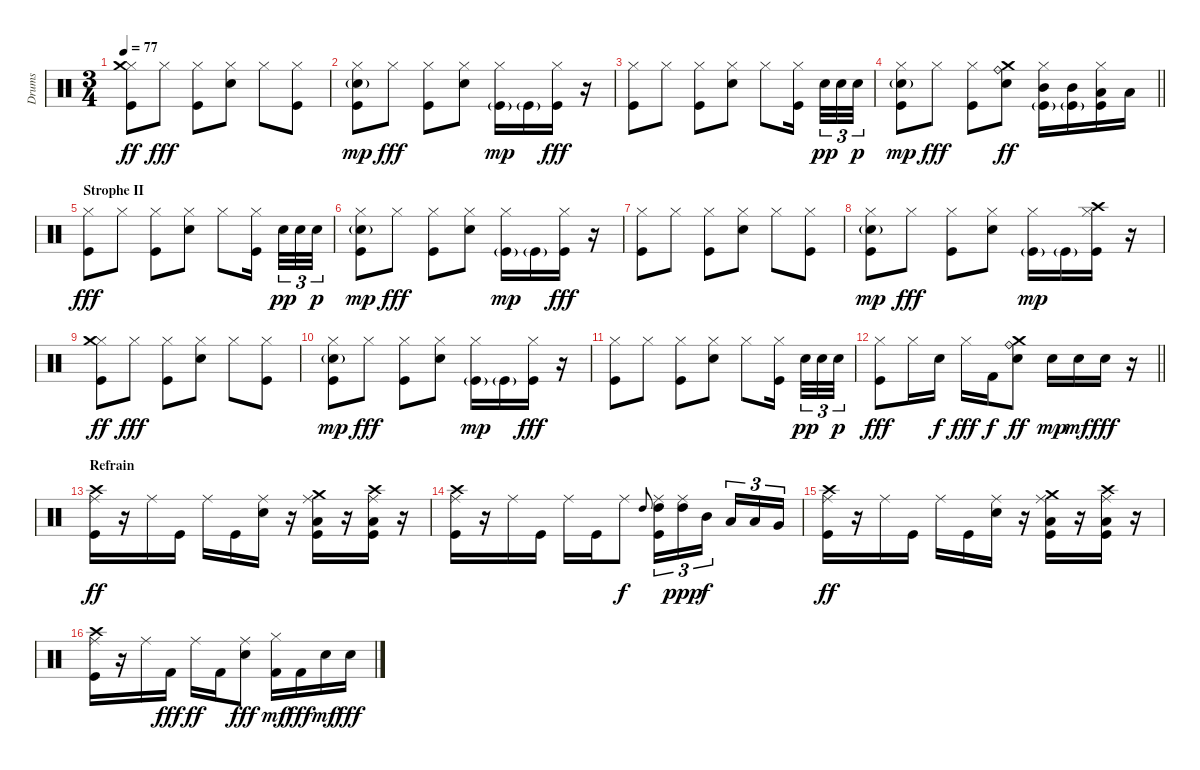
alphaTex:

\track ("Drums" "Drums") {instrument percussion}
\staff {score}
\articulation defaults
\ts (3 4)
\tempo 77
\clef neutral
\ks c
("Hi-Hat (closed)" "Kick (hit)" "Crash medium (hit)").8{dy ff} "Hi-Hat (closed)".8{dy fff} ("Hi-Hat (closed)" "Kick (hit)").8 ("Hi-Hat (closed)" "Electric Snare (hit)").8 "Hi-Hat (closed)".8 ("Hi-Hat (closed)" "Kick (hit)").8 |
("Hi-Hat (closed)" "Kick (hit)" "Electric Snare (hit)"{g}).8{dy mp} "Hi-Hat (closed)".8{dy fff} ("Hi-Hat (closed)" "Kick (hit)").8 ("Hi-Hat (closed)" "Electric Snare (hit)").8 ("Hi-Hat (closed)" "Kick (hit)"{g}).16{dy mp} "Kick (hit)"{g}.16 ("Kick (hit)" "Hi-Hat (closed)").16{dy fff} r.16 |
("Hi-Hat (closed)" "Kick (hit)").8 "Hi-Hat (closed)".8 ("Hi-Hat (closed)" "Kick (hit)").8 ("Hi-Hat (closed)" "Electric Snare (hit)").8 "Hi-Hat (closed)".8 ("Hi-Hat (closed)" "Kick (hit)").16{beam splitsecondary} "Electric Snare (hit)".32{tu (3 2) dy pp} "Electric Snare (hit)".32{tu (3 2)} "Electric Snare (hit)".32{tu (3 2) dy p} |
\barLineRight lightlight
("Hi-Hat (closed)" "Kick (hit)" "Electric Snare (hit)"{g}).8{dy mp} "Hi-Hat (closed)".8{dy fff} ("Hi-Hat (closed)" "Kick (hit)").8 ("Crash medium (hit)" "Electric Snare (hit)" "Ride (bell)").8{dy ff} ("Hi-Hat (closed)" "Kick (hit)"{g} "Mid Tom (hit)").16 ("Kick (hit)"{g} "Mid Tom (hit)").16 ("Kick (hit)" "Hi-Hat (closed)" "Low Tom (hit)").16 "Low Floor Tom (hit)".16 |
\section ("" "Strophe II")
("Hi-Hat (closed)" "Kick (hit)").8{dy fff} "Hi-Hat (closed)".8 ("Hi-Hat (closed)" "Kick (hit)").8 ("Hi-Hat (closed)" "Electric Snare (hit)").8 "Hi-Hat (closed)".8 ("Hi-Hat (closed)" "Kick (hit)").16{beam splitsecondary} "Electric Snare (hit)".32{tu (3 2) dy pp} "Electric Snare (hit)".32{tu (3 2)} "Electric Snare (hit)".32{tu (3 2) dy p} |
("Hi-Hat (closed)" "Kick (hit)" "Electric Snare (hit)"{g}).8{dy mp} "Hi-Hat (closed)".8{dy fff} ("Hi-Hat (closed)" "Kick (hit)").8 ("Hi-Hat (closed)" "Electric Snare (hit)").8 ("Hi-Hat (closed)" "Kick (hit)"{g}).16{dy mp} "Kick (hit)"{g}.16 ("Kick (hit)" "Hi-Hat (closed)").16{dy fff} r.16 |
("Hi-Hat (closed)" "Kick (hit)").8 "Hi-Hat (closed)".8 ("Hi-Hat (closed)" "Kick (hit)").8 ("Hi-Hat (closed)" "Electric Snare (hit)").8 "Hi-Hat (closed)".8 ("Hi-Hat (closed)" "Kick (hit)").8 |
("Hi-Hat (closed)" "Kick (hit)" "Electric Snare (hit)"{g}).8{dy mp} "Hi-Hat (closed)".8{dy fff} ("Hi-Hat (closed)" "Kick (hit)").8 ("Hi-Hat (closed)" "Electric Snare (hit)").8 ("Hi-Hat (closed)" "Kick (hit)"{g}).16{dy mp} "Kick (hit)"{g}.16 ("Kick (hit)" "Hi-Hat (closed)" "Crash high (hit)").16 r.16 |
("Hi-Hat (closed)" "Kick (hit)" "Crash medium (hit)").8{dy ff} "Hi-Hat (closed)".8{dy fff} ("Hi-Hat (closed)" "Kick (hit)").8 ("Hi-Hat (closed)" "Electric Snare (hit)").8 "Hi-Hat (closed)".8 ("Hi-Hat (closed)" "Kick (hit)").8 |
("Hi-Hat (closed)" "Kick (hit)" "Electric Snare (hit)"{g}).8{dy mp} "Hi-Hat (closed)".8{dy fff} ("Hi-Hat (closed)" "Kick (hit)").8 ("Hi-Hat (closed)" "Electric Snare (hit)").8 ("Hi-Hat (closed)" "Kick (hit)"{g}).16{dy mp} "Kick (hit)"{g}.16 ("Kick (hit)" "Hi-Hat (closed)").16{dy fff} r.16 |
("Hi-Hat (closed)" "Kick (hit)").8 "Hi-Hat (closed)".8 ("Hi-Hat (closed)" "Kick (hit)").8 ("Hi-Hat (closed)" "Electric Snare (hit)").8 "Hi-Hat (closed)".8 ("Hi-Hat (closed)" "Kick (hit)").16{beam splitsecondary} "Electric Snare (hit)".32{tu (3 2) dy pp} "Electric Snare (hit)".32{tu (3 2)} "Electric Snare (hit)".32{tu (3 2) dy p} |
\barLineRight lightlight
("Hi-Hat (closed)" "Kick (hit)").8{dy fff} "Hi-Hat (closed)".16 "Electric Snare (hit)".16{dy f} "Hi-Hat (closed)".16{dy fff} "Kick (hit) 2".16{dy f} ("Crash medium (hit)" "Electric Snare (hit)" "Ride (bell)").8{dy ff} "Electric Snare (hit)".16{dy mp} "Electric Snare (hit)".16{dy mf} "Electric Snare (hit)".16{dy fff} r.16 |
\section ("" "Refrain")
("Crash high (hit)" "Ride (middle)" "Kick (hit)").16{dy ff} r.16 "Ride (middle)".16 "Kick (hit)".16 "Ride (middle)".16 "Kick (hit)".16 ("Electric Snare (hit)" "Ride (middle)").16 r.16 ("Kick (hit)" "Low Tom (hit)" "Crash medium (hit)" "Ride (middle)").16 r.16 ("Low Floor Tom (hit)" "Kick (hit)" "Crash high (hit)" "Ride (middle)").16 r.16 |
("Crash high (hit)" "Ride (middle)" "Kick (hit)").16 r.16 "Ride (middle)".16 "Kick (hit)".16 "Ride (middle)".16 "Kick (hit)".16 "Ride (middle)".8{dy f} "High Tom (hit)".8{gr onbeat} ("Ride (middle)" "Kick (hit)" "High Tom (hit)").16{tu (3 2)} ("High Tom (hit)" "Ride (middle)").16{tu (3 2) dy ppp} "Mid Tom (hit)".16{tu (3 2) dy f beam splitsecondary} "Low Tom (hit)".16{tu (3 2)} "Low Tom (hit)".16{tu (3 2)} "Very Low Tom (hit)".16{tu (3 2)} |
("Crash high (hit)" "Ride (middle)" "Kick (hit)").16{dy ff} r.16 "Ride (middle)".16 "Kick (hit)".16 "Ride (middle)".16 "Kick (hit)".16 ("Electric Snare (hit)" "Ride (middle)").16 r.16 ("Kick (hit)" "Low Tom (hit)" "Crash medium (hit)" "Ride (middle)").16 r.16 ("Low Floor Tom (hit)" "Kick (hit)" "Crash high (hit)" "Ride (middle)").16 r.16 |
("Crash high (hit)" "Ride (middle)" "Kick (hit)").16 r.16 "Ride (middle)".16 "Kick (hit) 2".16{dy fff} "Ride (middle)".16{dy ff} "Kick (hit) 2".16 ("Ride (middle)" "Electric Snare (hit)").8{dy fff} ("Hi-Hat (closed)" "Kick (hit) 2").16{dy mf} "Kick (hit) 2".16{dy fff} "Electric Snare (hit)".16{dy mf} "Electric Snare (hit)".16{dy fff}
